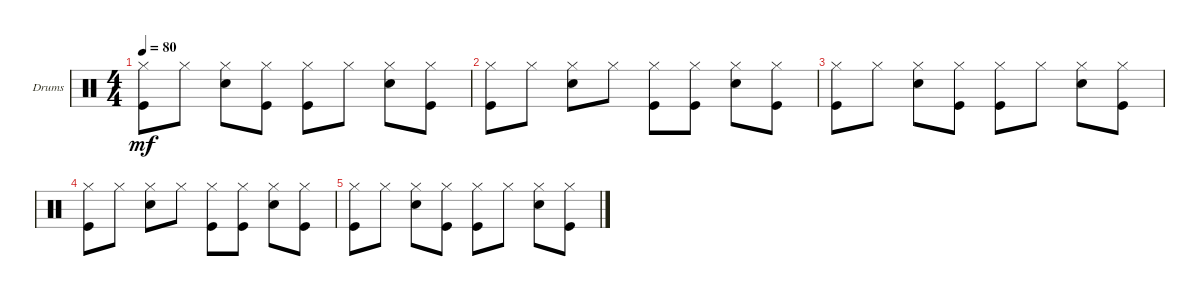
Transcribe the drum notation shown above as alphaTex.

\defaultSystemsLayout 4
\bracketExtendMode groupsimilarinstruments
\firstSystemTrackNameOrientation horizontal
\otherSystemsTrackNameOrientation horizontal
\track ("Drumkit" "Drums") {instrument percussion}
\staff {score}
\articulation defaults
\ts (4 4)
\tempo 80
\clef neutral
\ks c
("Hi-Hat (closed)" "Kick (hit)").8{dy mf} "Hi-Hat (closed)".8 ("Hi-Hat (closed)" "Snare (hit) 2").8 ("Hi-Hat (closed)" "Kick (hit)").8 ("Hi-Hat (closed)" "Kick (hit)").8 "Hi-Hat (closed)".8 ("Hi-Hat (closed)" "Snare (hit) 2").8 ("Hi-Hat (closed)" "Kick (hit)").8 |
("Hi-Hat (closed)" "Kick (hit)").8 "Hi-Hat (closed)".8 ("Hi-Hat (closed)" "Snare (hit) 2").8 "Hi-Hat (closed)".8 ("Hi-Hat (closed)" "Kick (hit)").8 ("Hi-Hat (closed)" "Kick (hit)").8 ("Hi-Hat (closed)" "Snare (hit) 2").8 ("Hi-Hat (closed)" "Kick (hit)").8 |
("Hi-Hat (closed)" "Kick (hit)").8 "Hi-Hat (closed)".8 ("Hi-Hat (closed)" "Snare (hit) 2").8 ("Hi-Hat (closed)" "Kick (hit)").8 ("Hi-Hat (closed)" "Kick (hit)").8 "Hi-Hat (closed)".8 ("Hi-Hat (closed)" "Snare (hit) 2").8 ("Hi-Hat (closed)" "Kick (hit)").8 |
("Hi-Hat (closed)" "Kick (hit)").8 "Hi-Hat (closed)".8 ("Hi-Hat (closed)" "Snare (hit) 2").8 "Hi-Hat (closed)".8 ("Hi-Hat (closed)" "Kick (hit)").8 ("Hi-Hat (closed)" "Kick (hit)").8 ("Hi-Hat (closed)" "Snare (hit) 2").8 ("Hi-Hat (closed)" "Kick (hit)").8 |
("Hi-Hat (closed)" "Kick (hit)").8 "Hi-Hat (closed)".8 ("Hi-Hat (closed)" "Snare (hit) 2").8 ("Hi-Hat (closed)" "Kick (hit)").8 ("Hi-Hat (closed)" "Kick (hit)").8 "Hi-Hat (closed)".8 ("Hi-Hat (closed)" "Snare (hit) 2").8 ("Hi-Hat (closed)" "Kick (hit)").8
